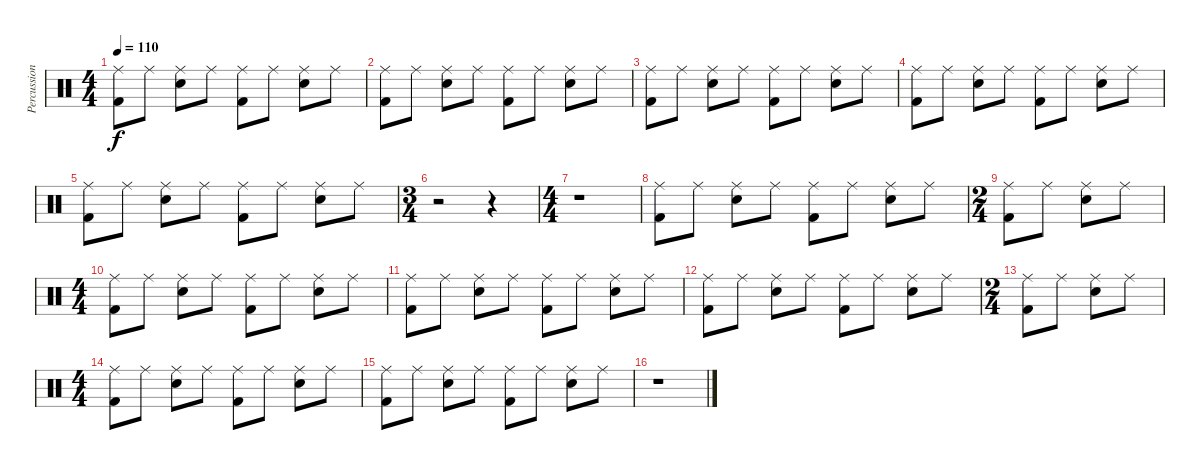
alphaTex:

\track ("Percussions" "Percussion") {instrument percussion}
\staff {score}
\articulation defaults
\ts (4 4)
\tempo 110
\clef neutral
\ks c
("Ride (middle)" "Kick (hit) 2").8{dy f} "Ride (middle)".8 ("Ride (middle)" "Electric Snare (hit)").8 "Ride (middle)".8 ("Ride (middle)" "Kick (hit) 2").8 "Ride (middle)".8 ("Ride (middle)" "Electric Snare (hit)").8 "Ride (middle)".8 |
("Ride (middle)" "Kick (hit) 2").8 "Ride (middle)".8 ("Ride (middle)" "Electric Snare (hit)").8 "Ride (middle)".8 ("Ride (middle)" "Kick (hit) 2").8 "Ride (middle)".8 ("Ride (middle)" "Electric Snare (hit)").8 "Ride (middle)".8 |
("Ride (middle)" "Kick (hit) 2").8 "Ride (middle)".8 ("Ride (middle)" "Electric Snare (hit)").8 "Ride (middle)".8 ("Ride (middle)" "Kick (hit) 2").8 "Ride (middle)".8 ("Ride (middle)" "Electric Snare (hit)").8 "Ride (middle)".8 |
("Ride (middle)" "Kick (hit) 2").8 "Ride (middle)".8 ("Ride (middle)" "Electric Snare (hit)").8 "Ride (middle)".8 ("Ride (middle)" "Kick (hit) 2").8 "Ride (middle)".8 ("Ride (middle)" "Electric Snare (hit)").8 "Ride (middle)".8 |
("Ride (middle)" "Kick (hit) 2").8 "Ride (middle)".8 ("Ride (middle)" "Electric Snare (hit)").8 "Ride (middle)".8 ("Ride (middle)" "Kick (hit) 2").8 "Ride (middle)".8 ("Ride (middle)" "Electric Snare (hit)").8 "Ride (middle)".8 |
\ts (3 4)
r.2 r.4 |
\ts (4 4)
r.1 |
("Ride (middle)" "Kick (hit) 2").8 "Ride (middle)".8 ("Ride (middle)" "Electric Snare (hit)").8 "Ride (middle)".8 ("Ride (middle)" "Kick (hit) 2").8 "Ride (middle)".8 ("Ride (middle)" "Electric Snare (hit)").8 "Ride (middle)".8 |
\ts (2 4)
("Ride (middle)" "Kick (hit) 2").8 "Ride (middle)".8 ("Ride (middle)" "Electric Snare (hit)").8 "Ride (middle)".8 |
\ts (4 4)
("Ride (middle)" "Kick (hit) 2").8 "Ride (middle)".8 ("Ride (middle)" "Electric Snare (hit)").8 "Ride (middle)".8 ("Ride (middle)" "Kick (hit) 2").8 "Ride (middle)".8 ("Ride (middle)" "Electric Snare (hit)").8 "Ride (middle)".8 |
("Ride (middle)" "Kick (hit) 2").8 "Ride (middle)".8 ("Ride (middle)" "Electric Snare (hit)").8 "Ride (middle)".8 ("Ride (middle)" "Kick (hit) 2").8 "Ride (middle)".8 ("Ride (middle)" "Electric Snare (hit)").8 "Ride (middle)".8 |
("Ride (middle)" "Kick (hit) 2").8 "Ride (middle)".8 ("Ride (middle)" "Electric Snare (hit)").8 "Ride (middle)".8 ("Ride (middle)" "Kick (hit) 2").8 "Ride (middle)".8 ("Ride (middle)" "Electric Snare (hit)").8 "Ride (middle)".8 |
\ts (2 4)
("Ride (middle)" "Kick (hit) 2").8 "Ride (middle)".8 ("Ride (middle)" "Electric Snare (hit)").8 "Ride (middle)".8 |
\ts (4 4)
("Ride (middle)" "Kick (hit) 2").8 "Ride (middle)".8 ("Ride (middle)" "Electric Snare (hit)").8 "Ride (middle)".8 ("Ride (middle)" "Kick (hit) 2").8 "Ride (middle)".8 ("Ride (middle)" "Electric Snare (hit)").8 "Ride (middle)".8 |
("Ride (middle)" "Kick (hit) 2").8 "Ride (middle)".8 ("Ride (middle)" "Electric Snare (hit)").8 "Ride (middle)".8 ("Ride (middle)" "Kick (hit) 2").8 "Ride (middle)".8 ("Ride (middle)" "Electric Snare (hit)").8 "Ride (middle)".8 |
r.1
